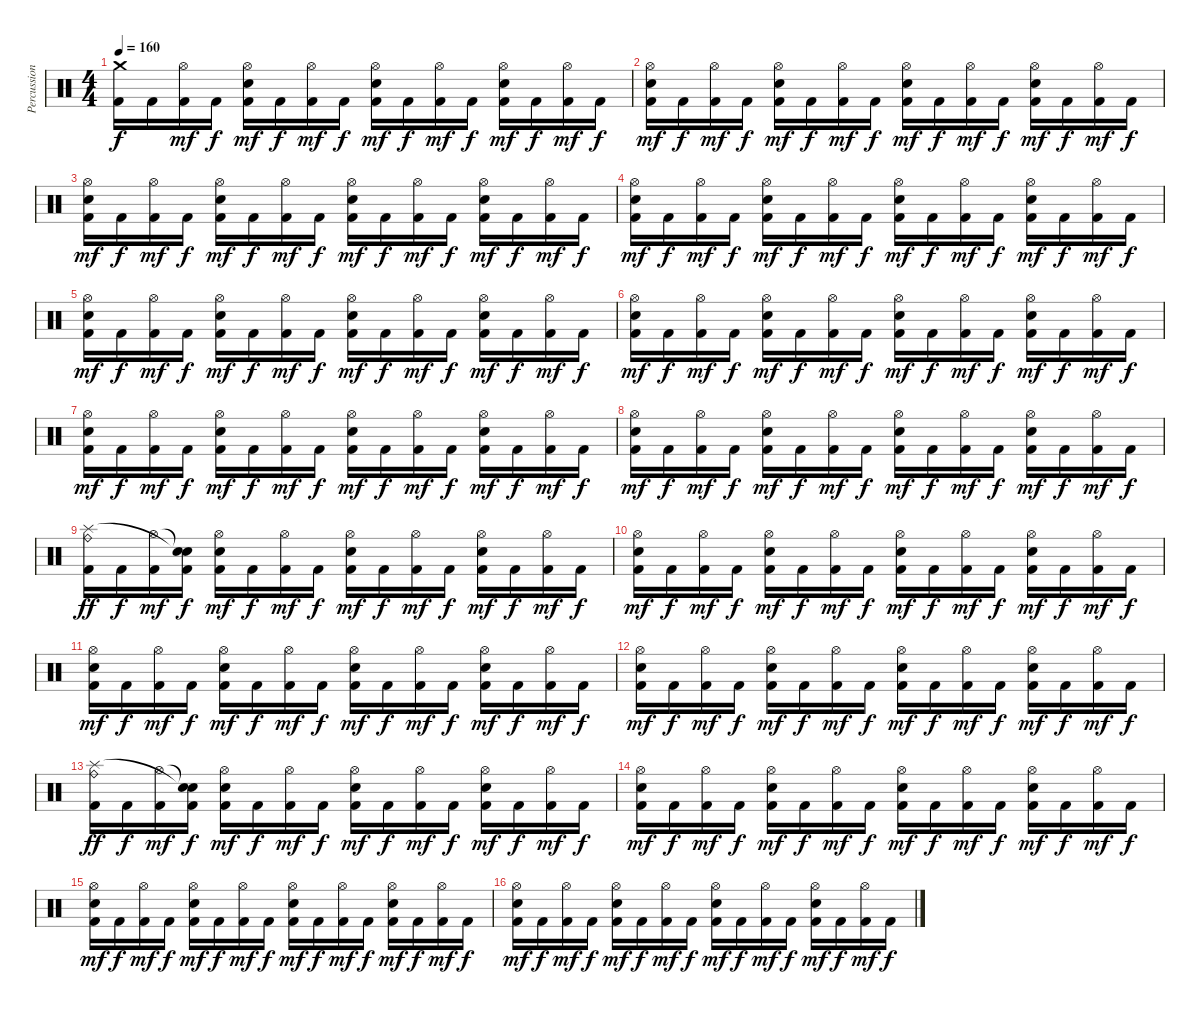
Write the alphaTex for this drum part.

\track ("Percussioni" "Percussion") {instrument percussion}
\staff {score}
\articulation defaults
\ts (4 4)
\tempo 160
\clef neutral
\ks c
("Kick (hit) 2" "Crash medium (hit)").16{dy f} "Kick (hit) 2".16 ("Kick (hit) 2" "Hi-Hat (open)").16{dy mf} "Kick (hit) 2".16{dy f} ("Kick (hit) 2" "Snare (hit) 2" "Hi-Hat (open)").16{dy mf} "Kick (hit) 2".16{dy f} ("Kick (hit) 2" "Hi-Hat (open)").16{dy mf} "Kick (hit) 2".16{dy f} ("Kick (hit) 2" "Snare (hit) 2" "Hi-Hat (open)").16{dy mf} "Kick (hit) 2".16{dy f} ("Kick (hit) 2" "Hi-Hat (open)").16{dy mf} "Kick (hit) 2".16{dy f} ("Kick (hit) 2" "Snare (hit) 2" "Hi-Hat (open)").16{dy mf} "Kick (hit) 2".16{dy f} ("Kick (hit) 2" "Hi-Hat (open)").16{dy mf} "Kick (hit) 2".16{dy f} |
("Kick (hit) 2" "Snare (hit) 2" "Hi-Hat (open)").16{dy mf} "Kick (hit) 2".16{dy f} ("Kick (hit) 2" "Hi-Hat (open)").16{dy mf} "Kick (hit) 2".16{dy f} ("Kick (hit) 2" "Snare (hit) 2" "Hi-Hat (open)").16{dy mf} "Kick (hit) 2".16{dy f} ("Kick (hit) 2" "Hi-Hat (open)").16{dy mf} "Kick (hit) 2".16{dy f} ("Kick (hit) 2" "Snare (hit) 2" "Hi-Hat (open)").16{dy mf} "Kick (hit) 2".16{dy f} ("Kick (hit) 2" "Hi-Hat (open)").16{dy mf} "Kick (hit) 2".16{dy f} ("Kick (hit) 2" "Snare (hit) 2" "Hi-Hat (open)").16{dy mf} "Kick (hit) 2".16{dy f} ("Kick (hit) 2" "Hi-Hat (open)").16{dy mf} "Kick (hit) 2".16{dy f} |
("Kick (hit) 2" "Snare (hit) 2" "Hi-Hat (open)").16{dy mf} "Kick (hit) 2".16{dy f} ("Kick (hit) 2" "Hi-Hat (open)").16{dy mf} "Kick (hit) 2".16{dy f} ("Kick (hit) 2" "Snare (hit) 2" "Hi-Hat (open)").16{dy mf} "Kick (hit) 2".16{dy f} ("Kick (hit) 2" "Hi-Hat (open)").16{dy mf} "Kick (hit) 2".16{dy f} ("Kick (hit) 2" "Snare (hit) 2" "Hi-Hat (open)").16{dy mf} "Kick (hit) 2".16{dy f} ("Kick (hit) 2" "Hi-Hat (open)").16{dy mf} "Kick (hit) 2".16{dy f} ("Kick (hit) 2" "Snare (hit) 2" "Hi-Hat (open)").16{dy mf} "Kick (hit) 2".16{dy f} ("Kick (hit) 2" "Hi-Hat (open)").16{dy mf} "Kick (hit) 2".16{dy f} |
("Kick (hit) 2" "Snare (hit) 2" "Hi-Hat (open)").16{dy mf} "Kick (hit) 2".16{dy f} ("Kick (hit) 2" "Hi-Hat (open)").16{dy mf} "Kick (hit) 2".16{dy f} ("Kick (hit) 2" "Snare (hit) 2" "Hi-Hat (open)").16{dy mf} "Kick (hit) 2".16{dy f} ("Kick (hit) 2" "Hi-Hat (open)").16{dy mf} "Kick (hit) 2".16{dy f} ("Kick (hit) 2" "Snare (hit) 2" "Hi-Hat (open)").16{dy mf} "Kick (hit) 2".16{dy f} ("Kick (hit) 2" "Hi-Hat (open)").16{dy mf} "Kick (hit) 2".16{dy f} ("Kick (hit) 2" "Snare (hit) 2" "Hi-Hat (open)").16{dy mf} "Kick (hit) 2".16{dy f} ("Kick (hit) 2" "Hi-Hat (open)").16{dy mf} "Kick (hit) 2".16{dy f} |
("Kick (hit) 2" "Snare (hit) 2" "Hi-Hat (open)").16{dy mf} "Kick (hit) 2".16{dy f} ("Kick (hit) 2" "Hi-Hat (open)").16{dy mf} "Kick (hit) 2".16{dy f} ("Kick (hit) 2" "Snare (hit) 2" "Hi-Hat (open)").16{dy mf} "Kick (hit) 2".16{dy f} ("Kick (hit) 2" "Hi-Hat (open)").16{dy mf} "Kick (hit) 2".16{dy f} ("Kick (hit) 2" "Snare (hit) 2" "Hi-Hat (open)").16{dy mf} "Kick (hit) 2".16{dy f} ("Kick (hit) 2" "Hi-Hat (open)").16{dy mf} "Kick (hit) 2".16{dy f} ("Kick (hit) 2" "Snare (hit) 2" "Hi-Hat (open)").16{dy mf} "Kick (hit) 2".16{dy f} ("Kick (hit) 2" "Hi-Hat (open)").16{dy mf} "Kick (hit) 2".16{dy f} |
("Kick (hit) 2" "Snare (hit) 2" "Hi-Hat (open)").16{dy mf} "Kick (hit) 2".16{dy f} ("Kick (hit) 2" "Hi-Hat (open)").16{dy mf} "Kick (hit) 2".16{dy f} ("Kick (hit) 2" "Snare (hit) 2" "Hi-Hat (open)").16{dy mf} "Kick (hit) 2".16{dy f} ("Kick (hit) 2" "Hi-Hat (open)").16{dy mf} "Kick (hit) 2".16{dy f} ("Kick (hit) 2" "Snare (hit) 2" "Hi-Hat (open)").16{dy mf} "Kick (hit) 2".16{dy f} ("Kick (hit) 2" "Hi-Hat (open)").16{dy mf} "Kick (hit) 2".16{dy f} ("Kick (hit) 2" "Snare (hit) 2" "Hi-Hat (open)").16{dy mf} "Kick (hit) 2".16{dy f} ("Kick (hit) 2" "Hi-Hat (open)").16{dy mf} "Kick (hit) 2".16{dy f} |
("Kick (hit) 2" "Snare (hit) 2" "Hi-Hat (open)").16{dy mf} "Kick (hit) 2".16{dy f} ("Kick (hit) 2" "Hi-Hat (open)").16{dy mf} "Kick (hit) 2".16{dy f} ("Kick (hit) 2" "Snare (hit) 2" "Hi-Hat (open)").16{dy mf} "Kick (hit) 2".16{dy f} ("Kick (hit) 2" "Hi-Hat (open)").16{dy mf} "Kick (hit) 2".16{dy f} ("Kick (hit) 2" "Snare (hit) 2" "Hi-Hat (open)").16{dy mf} "Kick (hit) 2".16{dy f} ("Kick (hit) 2" "Hi-Hat (open)").16{dy mf} "Kick (hit) 2".16{dy f} ("Kick (hit) 2" "Snare (hit) 2" "Hi-Hat (open)").16{dy mf} "Kick (hit) 2".16{dy f} ("Kick (hit) 2" "Hi-Hat (open)").16{dy mf} "Kick (hit) 2".16{dy f} |
("Kick (hit) 2" "Snare (hit) 2" "Hi-Hat (open)").16{dy mf} "Kick (hit) 2".16{dy f} ("Kick (hit) 2" "Hi-Hat (open)").16{dy mf} "Kick (hit) 2".16{dy f} ("Kick (hit) 2" "Snare (hit) 2" "Hi-Hat (open)").16{dy mf} "Kick (hit) 2".16{dy f} ("Kick (hit) 2" "Hi-Hat (open)").16{dy mf} "Kick (hit) 2".16{dy f} ("Kick (hit) 2" "Snare (hit) 2" "Hi-Hat (open)").16{dy mf} "Kick (hit) 2".16{dy f} ("Kick (hit) 2" "Hi-Hat (open)").16{dy mf} "Kick (hit) 2".16{dy f} ("Kick (hit) 2" "Snare (hit) 2" "Hi-Hat (open)").16{dy mf} "Kick (hit) 2".16{dy f} ("Kick (hit) 2" "Hi-Hat (open)").16{dy mf} "Kick (hit) 2".16{dy f} |
("Kick (hit) 2" "Ride (bell)" "Splash (hit)").16{dy ff} "Kick (hit) 2".16{dy f} ("Kick (hit) 2" "Hi-Hat (open)").16{dy mf} ("Kick (hit) 2" "Snare (hit)"{t} "Snare (hit)"{t}).16{dy f} ("Kick (hit) 2" "Snare (hit) 2" "Hi-Hat (open)").16{dy mf} "Kick (hit) 2".16{dy f} ("Kick (hit) 2" "Hi-Hat (open)").16{dy mf} "Kick (hit) 2".16{dy f} ("Kick (hit) 2" "Snare (hit) 2" "Hi-Hat (open)").16{dy mf} "Kick (hit) 2".16{dy f} ("Kick (hit) 2" "Hi-Hat (open)").16{dy mf} "Kick (hit) 2".16{dy f} ("Kick (hit) 2" "Snare (hit) 2" "Hi-Hat (open)").16{dy mf} "Kick (hit) 2".16{dy f} ("Kick (hit) 2" "Hi-Hat (open)").16{dy mf} "Kick (hit) 2".16{dy f} |
("Kick (hit) 2" "Snare (hit) 2" "Hi-Hat (open)").16{dy mf} "Kick (hit) 2".16{dy f} ("Kick (hit) 2" "Hi-Hat (open)").16{dy mf} "Kick (hit) 2".16{dy f} ("Kick (hit) 2" "Snare (hit) 2" "Hi-Hat (open)").16{dy mf} "Kick (hit) 2".16{dy f} ("Kick (hit) 2" "Hi-Hat (open)").16{dy mf} "Kick (hit) 2".16{dy f} ("Kick (hit) 2" "Snare (hit) 2" "Hi-Hat (open)").16{dy mf} "Kick (hit) 2".16{dy f} ("Kick (hit) 2" "Hi-Hat (open)").16{dy mf} "Kick (hit) 2".16{dy f} ("Kick (hit) 2" "Snare (hit) 2" "Hi-Hat (open)").16{dy mf} "Kick (hit) 2".16{dy f} ("Kick (hit) 2" "Hi-Hat (open)").16{dy mf} "Kick (hit) 2".16{dy f} |
("Kick (hit) 2" "Snare (hit) 2" "Hi-Hat (open)").16{dy mf} "Kick (hit) 2".16{dy f} ("Kick (hit) 2" "Hi-Hat (open)").16{dy mf} "Kick (hit) 2".16{dy f} ("Kick (hit) 2" "Snare (hit) 2" "Hi-Hat (open)").16{dy mf} "Kick (hit) 2".16{dy f} ("Kick (hit) 2" "Hi-Hat (open)").16{dy mf} "Kick (hit) 2".16{dy f} ("Kick (hit) 2" "Snare (hit) 2" "Hi-Hat (open)").16{dy mf} "Kick (hit) 2".16{dy f} ("Kick (hit) 2" "Hi-Hat (open)").16{dy mf} "Kick (hit) 2".16{dy f} ("Kick (hit) 2" "Snare (hit) 2" "Hi-Hat (open)").16{dy mf} "Kick (hit) 2".16{dy f} ("Kick (hit) 2" "Hi-Hat (open)").16{dy mf} "Kick (hit) 2".16{dy f} |
("Kick (hit) 2" "Snare (hit) 2" "Hi-Hat (open)").16{dy mf} "Kick (hit) 2".16{dy f} ("Kick (hit) 2" "Hi-Hat (open)").16{dy mf} "Kick (hit) 2".16{dy f} ("Kick (hit) 2" "Snare (hit) 2" "Hi-Hat (open)").16{dy mf} "Kick (hit) 2".16{dy f} ("Kick (hit) 2" "Hi-Hat (open)").16{dy mf} "Kick (hit) 2".16{dy f} ("Kick (hit) 2" "Snare (hit) 2" "Hi-Hat (open)").16{dy mf} "Kick (hit) 2".16{dy f} ("Kick (hit) 2" "Hi-Hat (open)").16{dy mf} "Kick (hit) 2".16{dy f} ("Kick (hit) 2" "Snare (hit) 2" "Hi-Hat (open)").16{dy mf} "Kick (hit) 2".16{dy f} ("Kick (hit) 2" "Hi-Hat (open)").16{dy mf} "Kick (hit) 2".16{dy f} |
("Kick (hit) 2" "Ride (bell)" "Splash (hit)").16{dy ff} "Kick (hit) 2".16{dy f} ("Kick (hit) 2" "Hi-Hat (open)").16{dy mf} ("Kick (hit) 2" "Snare (hit)"{t} "Snare (hit)"{t}).16{dy f} ("Kick (hit) 2" "Snare (hit) 2" "Hi-Hat (open)").16{dy mf} "Kick (hit) 2".16{dy f} ("Kick (hit) 2" "Hi-Hat (open)").16{dy mf} "Kick (hit) 2".16{dy f} ("Kick (hit) 2" "Snare (hit) 2" "Hi-Hat (open)").16{dy mf} "Kick (hit) 2".16{dy f} ("Kick (hit) 2" "Hi-Hat (open)").16{dy mf} "Kick (hit) 2".16{dy f} ("Kick (hit) 2" "Snare (hit) 2" "Hi-Hat (open)").16{dy mf} "Kick (hit) 2".16{dy f} ("Kick (hit) 2" "Hi-Hat (open)").16{dy mf} "Kick (hit) 2".16{dy f} |
("Kick (hit) 2" "Snare (hit) 2" "Hi-Hat (open)").16{dy mf} "Kick (hit) 2".16{dy f} ("Kick (hit) 2" "Hi-Hat (open)").16{dy mf} "Kick (hit) 2".16{dy f} ("Kick (hit) 2" "Snare (hit) 2" "Hi-Hat (open)").16{dy mf} "Kick (hit) 2".16{dy f} ("Kick (hit) 2" "Hi-Hat (open)").16{dy mf} "Kick (hit) 2".16{dy f} ("Kick (hit) 2" "Snare (hit) 2" "Hi-Hat (open)").16{dy mf} "Kick (hit) 2".16{dy f} ("Kick (hit) 2" "Hi-Hat (open)").16{dy mf} "Kick (hit) 2".16{dy f} ("Kick (hit) 2" "Snare (hit) 2" "Hi-Hat (open)").16{dy mf} "Kick (hit) 2".16{dy f} ("Kick (hit) 2" "Hi-Hat (open)").16{dy mf} "Kick (hit) 2".16{dy f} |
("Kick (hit) 2" "Snare (hit) 2" "Hi-Hat (open)").16{dy mf} "Kick (hit) 2".16{dy f} ("Kick (hit) 2" "Hi-Hat (open)").16{dy mf} "Kick (hit) 2".16{dy f} ("Kick (hit) 2" "Snare (hit) 2" "Hi-Hat (open)").16{dy mf} "Kick (hit) 2".16{dy f} ("Kick (hit) 2" "Hi-Hat (open)").16{dy mf} "Kick (hit) 2".16{dy f} ("Kick (hit) 2" "Snare (hit) 2" "Hi-Hat (open)").16{dy mf} "Kick (hit) 2".16{dy f} ("Kick (hit) 2" "Hi-Hat (open)").16{dy mf} "Kick (hit) 2".16{dy f} ("Kick (hit) 2" "Snare (hit) 2" "Hi-Hat (open)").16{dy mf} "Kick (hit) 2".16{dy f} ("Kick (hit) 2" "Hi-Hat (open)").16{dy mf} "Kick (hit) 2".16{dy f} |
("Kick (hit) 2" "Snare (hit) 2" "Hi-Hat (open)").16{dy mf} "Kick (hit) 2".16{dy f} ("Kick (hit) 2" "Hi-Hat (open)").16{dy mf} "Kick (hit) 2".16{dy f} ("Kick (hit) 2" "Snare (hit) 2" "Hi-Hat (open)").16{dy mf} "Kick (hit) 2".16{dy f} ("Kick (hit) 2" "Hi-Hat (open)").16{dy mf} "Kick (hit) 2".16{dy f} ("Kick (hit) 2" "Snare (hit) 2" "Hi-Hat (open)").16{dy mf} "Kick (hit) 2".16{dy f} ("Kick (hit) 2" "Hi-Hat (open)").16{dy mf} "Kick (hit) 2".16{dy f} ("Kick (hit) 2" "Snare (hit) 2" "Hi-Hat (open)").16{dy mf} "Kick (hit) 2".16{dy f} ("Kick (hit) 2" "Hi-Hat (open)").16{dy mf} "Kick (hit) 2".16{dy f}
